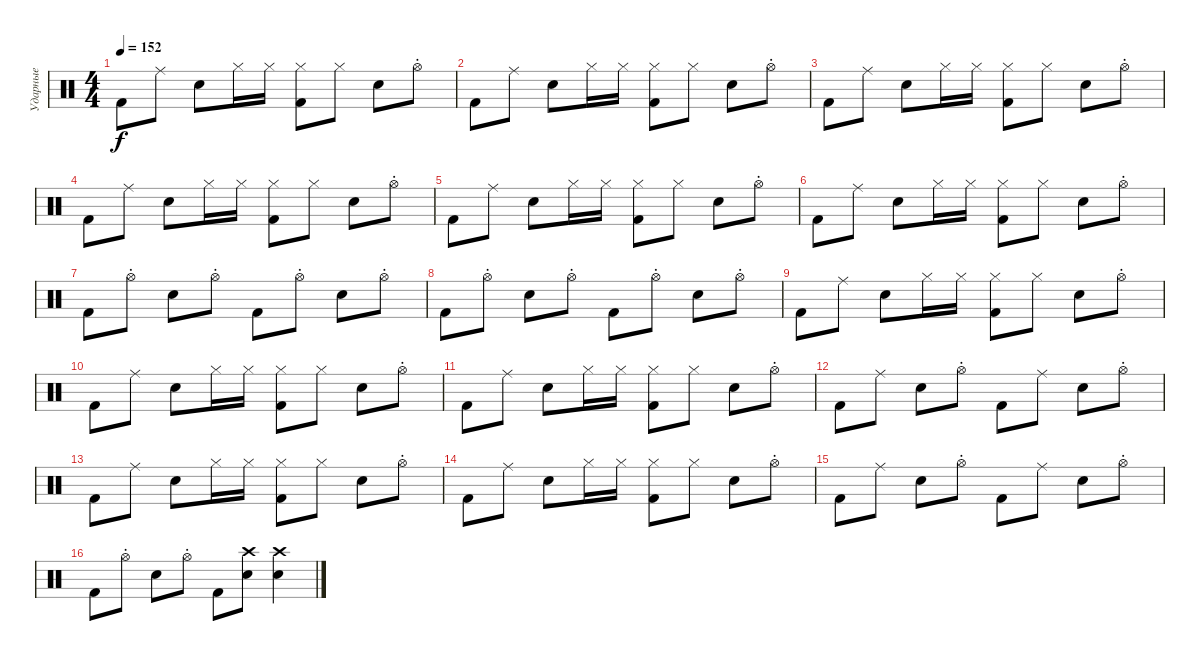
\track ("Ударные" "Ударные") {instrument percussion}
\staff {score}
\articulation defaults
\ts (4 4)
\tempo 152
\clef neutral
\ks c "Kick (hit) 2".8{dy f} "Ride (middle)".8 "Electric Snare (hit)".8 "Hi-Hat (closed)".16 "Hi-Hat (closed)".16
("Hi-Hat (closed)" "Kick (hit) 2").8 "Hi-Hat (closed)".8 "Electric Snare (hit)".8 "Hi-Hat (open)"{st}.8 |
"Kick (hit) 2".8 "Ride (middle)".8 "Electric Snare (hit)".8 "Hi-Hat (closed)".16 "Hi-Hat (closed)".16 ("Hi-Hat (closed)" "Kick (hit) 2").8 "Hi-Hat (closed)".8 "Electric Snare (hit)".8 "Hi-Hat (open)"{st}.8 |
"Kick (hit) 2".8 "Ride (middle)".8 "Electric Snare (hit)".8 "Hi-Hat (closed)".16 "Hi-Hat (closed)".16 ("Hi-Hat (closed)" "Kick (hit) 2").8 "Hi-Hat (closed)".8 "Electric Snare (hit)".8 "Hi-Hat (open)"{st}.8 |
"Kick (hit) 2".8 "Ride (middle)".8 "Electric Snare (hit)".8 "Hi-Hat (closed)".16 "Hi-Hat (closed)".16 ("Hi-Hat (closed)" "Kick (hit) 2").8 "Hi-Hat (closed)".8 "Electric Snare (hit)".8 "Hi-Hat (open)"{st}.8 |
"Kick (hit) 2".8 "Ride (middle)".8 "Electric Snare (hit)".8 "Hi-Hat (closed)".16 "Hi-Hat (closed)".16 ("Hi-Hat (closed)" "Kick (hit) 2").8 "Hi-Hat (closed)".8 "Electric Snare (hit)".8 "Hi-Hat (open)"{st}.8 |
"Kick (hit) 2".8 "Ride (middle)".8 "Electric Snare (hit)".8 "Hi-Hat (closed)".16 "Hi-Hat (closed)".16 ("Hi-Hat (closed)" "Kick (hit) 2").8 "Hi-Hat (closed)".8 "Electric Snare (hit)".8 "Hi-Hat (open)"{st}.8 |
"Kick (hit) 2".8 "Hi-Hat (open)"{st}.8 "Electric Snare (hit)".8 "Hi-Hat (open)"{st}.8 "Kick (hit) 2".8 "Hi-Hat (open)"{st}.8 "Electric Snare (hit)".8 "Hi-Hat (open)"{st}.8 |
"Kick (hit) 2".8 "Hi-Hat (open)"{st}.8 "Electric Snare (hit)".8 "Hi-Hat (open)"{st}.8 "Kick (hit) 2".8 "Hi-Hat (open)"{st}.8 "Electric Snare (hit)".8 "Hi-Hat (open)"{st}.8 |
"Kick (hit) 2".8 "Ride (middle)".8 "Electric Snare (hit)".8 "Hi-Hat (closed)".16 "Hi-Hat (closed)".16 ("Hi-Hat (closed)" "Kick (hit) 2").8 "Hi-Hat (closed)".8 "Electric Snare (hit)".8 "Hi-Hat (open)"{st}.8 |
"Kick (hit) 2".8 "Ride (middle)".8 "Electric Snare (hit)".8 "Hi-Hat (closed)".16 "Hi-Hat (closed)".16 ("Hi-Hat (closed)" "Kick (hit) 2").8 "Hi-Hat (closed)".8 "Electric Snare (hit)".8 "Hi-Hat (open)"{st}.8 |
"Kick (hit) 2".8 "Ride (middle)".8 "Electric Snare (hit)".8 "Hi-Hat (closed)".16 "Hi-Hat (closed)".16 ("Hi-Hat (closed)" "Kick (hit) 2").8 "Hi-Hat (closed)".8 "Electric Snare (hit)".8 "Hi-Hat (open)"{st}.8 |
"Kick (hit) 2".8 "Ride (middle)".8 "Electric Snare (hit)".8 "Hi-Hat (open)"{st}.8 "Kick (hit) 2".8 "Ride (middle)".8 "Electric Snare (hit)".8 "Hi-Hat (open)"{st}.8 |
"Kick (hit) 2".8 "Ride (middle)".8 "Electric Snare (hit)".8 "Hi-Hat (closed)".16 "Hi-Hat (closed)".16 ("Hi-Hat (closed)" "Kick (hit) 2").8 "Hi-Hat (closed)".8 "Electric Snare (hit)".8 "Hi-Hat (open)"{st}.8 |
"Kick (hit) 2".8 "Ride (middle)".8 "Electric Snare (hit)".8 "Hi-Hat (closed)".16 "Hi-Hat (closed)".16 ("Hi-Hat (closed)" "Kick (hit) 2").8 "Hi-Hat (closed)".8 "Electric Snare (hit)".8 "Hi-Hat (open)"{st}.8 |
"Kick (hit) 2".8 "Ride (middle)".8 "Electric Snare (hit)".8 "Hi-Hat (open)"{st}.8 "Kick (hit) 2".8 "Ride (middle)".8 "Electric Snare (hit)".8 "Hi-Hat (open)"{st}.8 |
"Kick (hit) 2".8 "Hi-Hat (open)"{st}.8 "Electric Snare (hit)".8 "Hi-Hat (open)"{st}.8 "Kick (hit) 2".8 ("Crash high (hit)" "Electric Snare (hit)").8 ("Crash high (hit)" "Electric Snare (hit)").4
